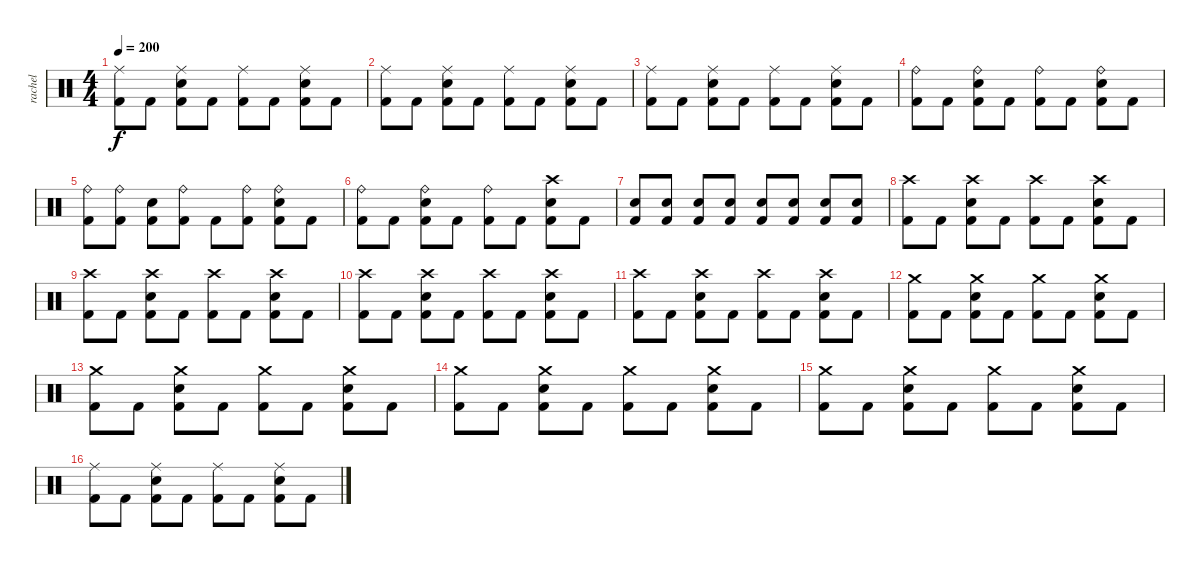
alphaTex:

\track ("rachel" "rachel") {instrument percussion}
\staff {score}
\articulation defaults
\ts (4 4)
\tempo 200
\clef neutral
\ks c
("Ride (middle)" "Kick (hit) 2").8{dy f} "Kick (hit) 2".8 ("Ride (middle)" "Electric Snare (hit)" "Kick (hit) 2").8 "Kick (hit) 2".8 ("Ride (middle)" "Kick (hit) 2").8 "Kick (hit) 2".8 ("Ride (middle)" "Electric Snare (hit)" "Kick (hit) 2").8 "Kick (hit) 2".8 |
("Ride (middle)" "Kick (hit) 2").8 "Kick (hit) 2".8 ("Ride (middle)" "Electric Snare (hit)" "Kick (hit) 2").8 "Kick (hit) 2".8 ("Ride (middle)" "Kick (hit) 2").8 "Kick (hit) 2".8 ("Ride (middle)" "Electric Snare (hit)" "Kick (hit) 2").8 "Kick (hit) 2".8 |
("Ride (middle)" "Kick (hit) 2").8 "Kick (hit) 2".8 ("Ride (middle)" "Electric Snare (hit)" "Kick (hit) 2").8 "Kick (hit) 2".8 ("Ride (middle)" "Kick (hit) 2").8 "Kick (hit) 2".8 ("Ride (middle)" "Electric Snare (hit)" "Kick (hit) 2").8 "Kick (hit) 2".8 |
("Ride (bell)" "Kick (hit) 2").8 "Kick (hit) 2".8 ("Ride (bell)" "Electric Snare (hit)" "Kick (hit) 2").8 "Kick (hit) 2".8 ("Ride (bell)" "Kick (hit) 2").8 "Kick (hit) 2".8 ("Ride (bell)" "Electric Snare (hit)" "Kick (hit) 2").8 "Kick (hit) 2".8 |
("Ride (bell)" "Kick (hit) 2").8 ("Ride (bell)" "Kick (hit) 2").8 ("Electric Snare (hit)" "Kick (hit) 2").8 ("Ride (bell)" "Kick (hit) 2").8 "Kick (hit) 2".8 ("Ride (bell)" "Kick (hit) 2").8 ("Ride (bell)" "Electric Snare (hit)" "Kick (hit) 2").8 "Kick (hit) 2".8 |
("Ride (bell)" "Kick (hit) 2").8 "Kick (hit) 2".8 ("Ride (bell)" "Electric Snare (hit)" "Kick (hit) 2").8 "Kick (hit) 2".8 ("Ride (bell)" "Kick (hit) 2").8 "Kick (hit) 2".8 ("Crash high (hit)" "Electric Snare (hit)" "Kick (hit) 2").8 "Kick (hit) 2".8 |
("Electric Snare (hit)" "Kick (hit) 2").8 ("Electric Snare (hit)" "Kick (hit) 2").8 ("Electric Snare (hit)" "Kick (hit) 2").8 ("Electric Snare (hit)" "Kick (hit) 2").8 ("Electric Snare (hit)" "Kick (hit) 2").8 ("Electric Snare (hit)" "Kick (hit) 2").8 ("Electric Snare (hit)" "Kick (hit) 2").8 ("Electric Snare (hit)" "Kick (hit) 2").8 |
("Crash high (hit)" "Kick (hit) 2").8 "Kick (hit) 2".8 ("Crash high (hit)" "Electric Snare (hit)" "Kick (hit) 2").8 "Kick (hit) 2".8 ("Crash high (hit)" "Kick (hit) 2").8 "Kick (hit) 2".8 ("Crash high (hit)" "Electric Snare (hit)" "Kick (hit) 2").8 "Kick (hit) 2".8 |
("Crash high (hit)" "Kick (hit) 2").8 "Kick (hit) 2".8 ("Crash high (hit)" "Electric Snare (hit)" "Kick (hit) 2").8 "Kick (hit) 2".8 ("Crash high (hit)" "Kick (hit) 2").8 "Kick (hit) 2".8 ("Crash high (hit)" "Electric Snare (hit)" "Kick (hit) 2").8 "Kick (hit) 2".8 |
("Crash high (hit)" "Kick (hit) 2").8 "Kick (hit) 2".8 ("Crash high (hit)" "Electric Snare (hit)" "Kick (hit) 2").8 "Kick (hit) 2".8 ("Crash high (hit)" "Kick (hit) 2").8 "Kick (hit) 2".8 ("Crash high (hit)" "Electric Snare (hit)" "Kick (hit) 2").8 "Kick (hit) 2".8 |
("Crash high (hit)" "Kick (hit) 2").8 "Kick (hit) 2".8 ("Crash high (hit)" "Electric Snare (hit)" "Kick (hit) 2").8 "Kick (hit) 2".8 ("Crash high (hit)" "Kick (hit) 2").8 "Kick (hit) 2".8 ("Crash high (hit)" "Electric Snare (hit)" "Kick (hit) 2").8 "Kick (hit) 2".8 |
("Crash medium (hit)" "Kick (hit) 2").8 "Kick (hit) 2".8 ("Crash medium (hit)" "Electric Snare (hit)" "Kick (hit) 2").8 "Kick (hit) 2".8 ("Crash medium (hit)" "Kick (hit) 2").8 "Kick (hit) 2".8 ("Crash medium (hit)" "Electric Snare (hit)" "Kick (hit) 2").8 "Kick (hit) 2".8 |
("Crash medium (hit)" "Kick (hit) 2").8 "Kick (hit) 2".8 ("Crash medium (hit)" "Electric Snare (hit)" "Kick (hit) 2").8 "Kick (hit) 2".8 ("Crash medium (hit)" "Kick (hit) 2").8 "Kick (hit) 2".8 ("Crash medium (hit)" "Electric Snare (hit)" "Kick (hit) 2").8 "Kick (hit) 2".8 |
("Crash medium (hit)" "Kick (hit) 2").8 "Kick (hit) 2".8 ("Crash medium (hit)" "Electric Snare (hit)" "Kick (hit) 2").8 "Kick (hit) 2".8 ("Crash medium (hit)" "Kick (hit) 2").8 "Kick (hit) 2".8 ("Crash medium (hit)" "Electric Snare (hit)" "Kick (hit) 2").8 "Kick (hit) 2".8 |
("Crash medium (hit)" "Kick (hit) 2").8 "Kick (hit) 2".8 ("Crash medium (hit)" "Electric Snare (hit)" "Kick (hit) 2").8 "Kick (hit) 2".8 ("Crash medium (hit)" "Kick (hit) 2").8 "Kick (hit) 2".8 ("Crash medium (hit)" "Electric Snare (hit)" "Kick (hit) 2").8 "Kick (hit) 2".8 |
("Ride (middle)" "Kick (hit) 2").8 "Kick (hit) 2".8 ("Ride (middle)" "Electric Snare (hit)" "Kick (hit) 2").8 "Kick (hit) 2".8 ("Ride (middle)" "Kick (hit) 2").8 "Kick (hit) 2".8 ("Ride (middle)" "Electric Snare (hit)" "Kick (hit) 2").8 "Kick (hit) 2".8
